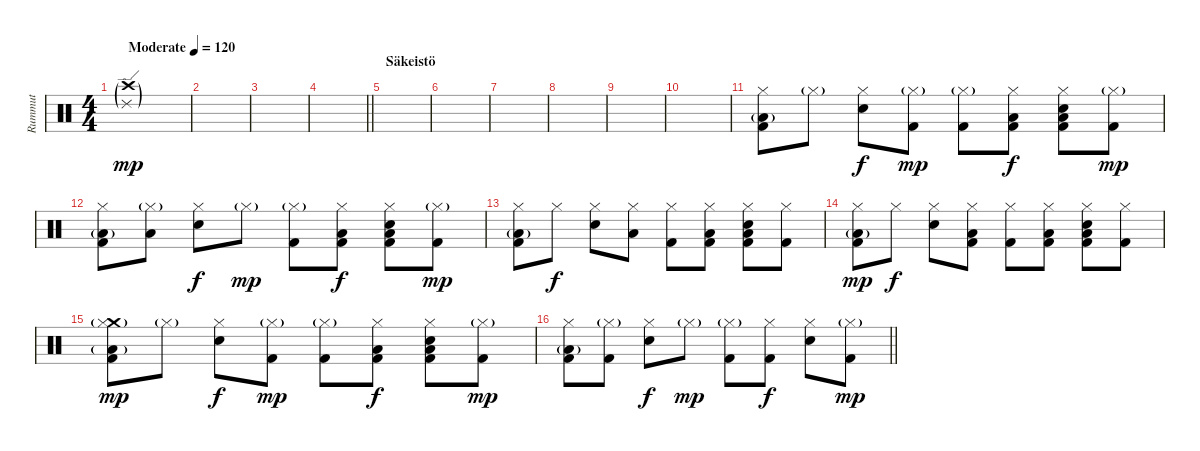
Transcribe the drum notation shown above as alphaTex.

\track ("Rummut" "Rummut") {instrument percussion}
\staff {score}
\articulation defaults
\ts (4 4)
\tempo (120 "Moderate")
\clef neutral
\ks c
("Ride (edge) 2"{g} "Crash high (hit)"{g}).1{dy mp} |
|
|
\barLineRight lightlight
|
\section ("" "Säkeistö")
|
|
|
|
|
|
("Low Floor Tom (hit)"{g} "Kick (hit) 2" "Hi-Hat (closed)").8 "Hi-Hat (closed)"{g}.8 ("Snare (hit) 2" "Hi-Hat (closed)").8{dy f} ("Kick (hit) 2" "Hi-Hat (closed)"{g}).8{dy mp} ("Kick (hit) 2" "Hi-Hat (closed)"{g}).8 ("Kick (hit) 2" "Low Floor Tom (hit)" "Hi-Hat (closed)").8{dy f} ("Kick (hit) 2" "Snare (hit) 2" "Low Tom (hit)" "Hi-Hat (closed)").8 ("Kick (hit) 2" "Hi-Hat (closed)"{g}).8{dy mp} |
("Low Floor Tom (hit)"{g} "Kick (hit) 2" "Hi-Hat (closed)").8 ("Low Floor Tom (hit)" "Hi-Hat (closed)"{g}).8 ("Snare (hit) 2" "Hi-Hat (closed)").8{dy f} "Hi-Hat (closed)"{g}.8{dy mp} ("Kick (hit) 2" "Hi-Hat (closed)"{g}).8 ("Kick (hit) 2" "Low Floor Tom (hit)" "Hi-Hat (closed)").8{dy f} ("Kick (hit) 2" "Snare (hit) 2" "Low Tom (hit)" "Hi-Hat (closed)").8 ("Kick (hit) 2" "Hi-Hat (closed)"{g}).8{dy mp} |
("Low Floor Tom (hit)"{g} "Kick (hit) 2" "Hi-Hat (closed)").8 "Hi-Hat (closed)".8{dy f} ("Snare (hit) 2" "Hi-Hat (closed)").8 ("Low Floor Tom (hit)" "Hi-Hat (closed)").8 ("Kick (hit) 2" "Hi-Hat (closed)").8 ("Kick (hit) 2" "Low Floor Tom (hit)" "Hi-Hat (closed)").8 ("Kick (hit) 2" "Snare (hit) 2" "Low Tom (hit)" "Hi-Hat (closed)").8 ("Kick (hit) 2" "Hi-Hat (closed)").8 |
("Low Floor Tom (hit)"{g} "Kick (hit) 2" "Hi-Hat (closed)").8{dy mp} "Hi-Hat (closed)".8{dy f} ("Snare (hit) 2" "Hi-Hat (closed)").8 ("Kick (hit) 2" "Low Floor Tom (hit)" "Hi-Hat (closed)").8 ("Kick (hit) 2" "Hi-Hat (closed)").8 ("Kick (hit) 2" "Low Floor Tom (hit)" "Hi-Hat (closed)").8 ("Kick (hit) 2" "Snare (hit) 2" "Low Tom (hit)" "Hi-Hat (closed)").8 ("Kick (hit) 2" "Hi-Hat (closed)").8 |
("Crash medium (hit)"{g} "Low Floor Tom (hit)"{g} "Kick (hit) 2" "Hi-Hat (closed)").8{dy mp} "Hi-Hat (closed)"{g}.8 ("Snare (hit) 2" "Hi-Hat (closed)").8{dy f} ("Kick (hit) 2" "Hi-Hat (closed)"{g}).8{dy mp} ("Kick (hit) 2" "Hi-Hat (closed)"{g}).8 ("Kick (hit) 2" "Low Floor Tom (hit)" "Hi-Hat (closed)").8{dy f} ("Kick (hit) 2" "Snare (hit) 2" "Low Tom (hit)" "Hi-Hat (closed)").8 ("Kick (hit) 2" "Hi-Hat (closed)"{g}).8{dy mp} |
\barLineRight lightlight
("Low Floor Tom (hit)"{g} "Kick (hit) 2" "Hi-Hat (closed)").8 ("Kick (hit) 2" "Hi-Hat (closed)"{g}).8 ("Snare (hit) 2" "Hi-Hat (closed)").8{dy f} "Hi-Hat (closed)"{g}.8{dy mp} ("Kick (hit) 2" "Hi-Hat (closed)"{g}).8 ("Kick (hit) 2" "Hi-Hat (closed)").8{dy f} ("Snare (hit) 2" "Hi-Hat (closed)").8 ("Kick (hit) 2" "Hi-Hat (closed)"{g}).8{dy mp}
